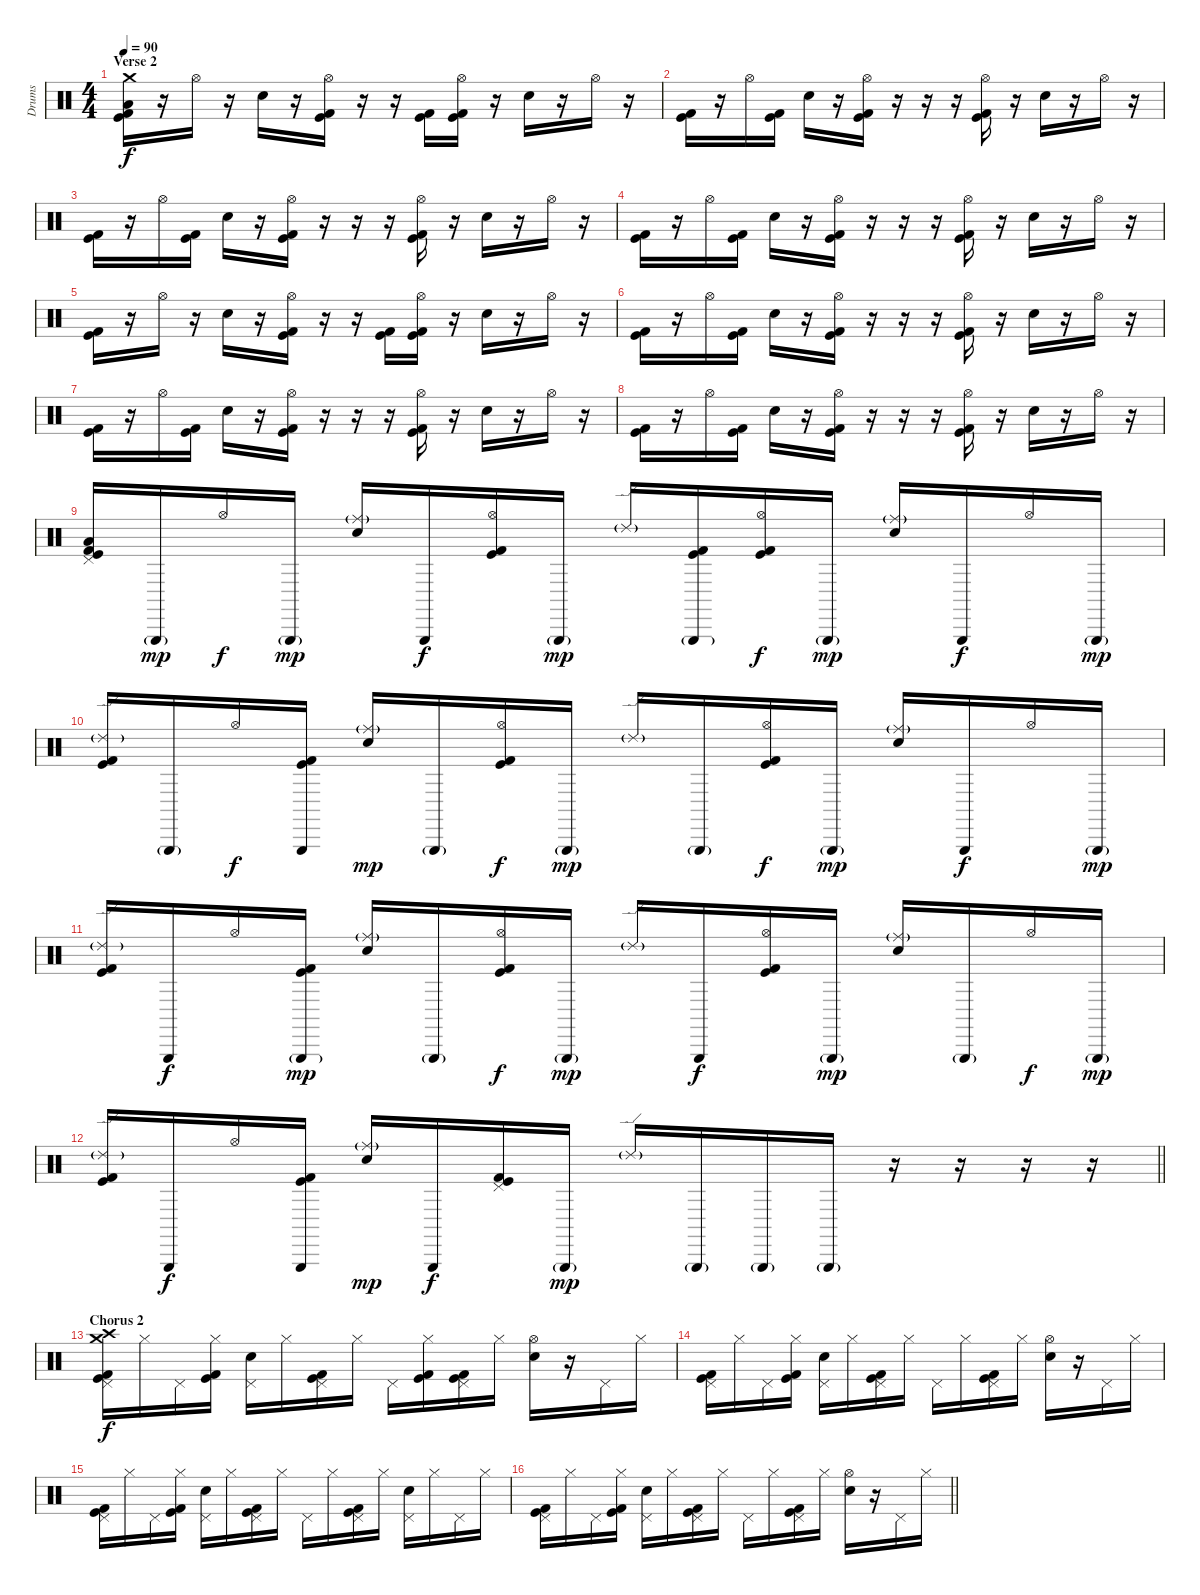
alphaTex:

\track ("Drums" "Drums") {instrument percussion}
\staff {score}
\articulation defaults
\ts (4 4)
\section ("" "Verse 2")
\tempo 90
\clef neutral
\ks c
("Crash medium (hit)" "Low Floor Tom (hit)" "Kick (hit)" "Kick (hit) 2").16{dy f volume 16} r.16 "Hi-Hat (open)".16 r.16 "Electric Snare (hit)".16 r.16 ("Hi-Hat (open)" "Kick (hit)" "Kick (hit) 2").16 r.16 r.16 ("Kick (hit)" "Kick (hit) 2").16 ("Hi-Hat (open)" "Kick (hit)" "Kick (hit) 2").16 r.16 "Electric Snare (hit)".16 r.16 "Hi-Hat (open)".16 r.16 |
("Kick (hit)" "Kick (hit) 2").16 r.16 "Hi-Hat (open)".16 ("Kick (hit)" "Kick (hit) 2").16 "Electric Snare (hit)".16 r.16 ("Hi-Hat (open)" "Kick (hit)" "Kick (hit) 2").16 r.16 r.16 r.16 ("Hi-Hat (open)" "Kick (hit)" "Kick (hit) 2").16 r.16 "Electric Snare (hit)".16 r.16 "Hi-Hat (open)".16 r.16 |
("Kick (hit)" "Kick (hit) 2").16 r.16 "Hi-Hat (open)".16 ("Kick (hit)" "Kick (hit) 2").16 "Electric Snare (hit)".16 r.16 ("Hi-Hat (open)" "Kick (hit)" "Kick (hit) 2").16 r.16 r.16 r.16 ("Hi-Hat (open)" "Kick (hit)" "Kick (hit) 2").16 r.16 "Electric Snare (hit)".16 r.16 "Hi-Hat (open)".16 r.16 |
("Kick (hit)" "Kick (hit) 2").16 r.16 "Hi-Hat (open)".16 ("Kick (hit)" "Kick (hit) 2").16 "Electric Snare (hit)".16 r.16 ("Hi-Hat (open)" "Kick (hit)" "Kick (hit) 2").16 r.16 r.16 r.16 ("Hi-Hat (open)" "Kick (hit)" "Kick (hit) 2").16 r.16 "Electric Snare (hit)".16 r.16 "Hi-Hat (open)".16 r.16 |
("Kick (hit)" "Kick (hit) 2").16 r.16 "Hi-Hat (open)".16 r.16 "Electric Snare (hit)".16 r.16 ("Hi-Hat (open)" "Kick (hit)" "Kick (hit) 2").16 r.16 r.16 ("Kick (hit)" "Kick (hit) 2").16 ("Hi-Hat (open)" "Kick (hit)" "Kick (hit) 2").16 r.16 "Electric Snare (hit)".16 r.16 "Hi-Hat (open)".16 r.16 |
("Kick (hit)" "Kick (hit) 2").16 r.16 "Hi-Hat (open)".16 ("Kick (hit)" "Kick (hit) 2").16 "Electric Snare (hit)".16 r.16 ("Hi-Hat (open)" "Kick (hit)" "Kick (hit) 2").16 r.16 r.16 r.16 ("Hi-Hat (open)" "Kick (hit)" "Kick (hit) 2").16 r.16 "Electric Snare (hit)".16 r.16 "Hi-Hat (open)".16 r.16 |
("Kick (hit)" "Kick (hit) 2").16 r.16 "Hi-Hat (open)".16 ("Kick (hit)" "Kick (hit) 2").16 "Electric Snare (hit)".16 r.16 ("Hi-Hat (open)" "Kick (hit)" "Kick (hit) 2").16 r.16 r.16 r.16 ("Hi-Hat (open)" "Kick (hit)" "Kick (hit) 2").16 r.16 "Electric Snare (hit)".16 r.16 "Hi-Hat (open)".16 r.16 |
("Kick (hit)" "Kick (hit) 2").16 r.16 "Hi-Hat (open)".16 ("Kick (hit)" "Kick (hit) 2").16 "Electric Snare (hit)".16 r.16 ("Hi-Hat (open)" "Kick (hit)" "Kick (hit) 2").16 r.16 r.16 r.16 ("Hi-Hat (open)" "Kick (hit)" "Kick (hit) 2").16 r.16 "Electric Snare (hit)".16 r.16 "Hi-Hat (open)".16 r.16 |
("Pedal Hi-Hat (hit)" "Low Floor Tom (hit)" "Kick (hit)" "Kick (hit) 2").16 "Triangle (hit)"{g}.16{dy mp} "Hi-Hat (open)".16{dy f} "Triangle (hit)"{g}.16{dy mp} ("Ride (middle)"{g} "Electric Snare (hit)").16 "Triangle (hit)".16{dy f} ("Hi-Hat (open)" "Kick (hit)" "Kick (hit) 2").16 "Triangle (hit)"{g}.16{dy mp} "Ride (edge) 2"{g}.16 ("Triangle (hit)"{g} "Kick (hit)" "Kick (hit) 2").16 ("Hi-Hat (open)" "Kick (hit)" "Kick (hit) 2").16{dy f} "Triangle (hit)"{g}.16{dy mp} ("Ride (middle)"{g} "Electric Snare (hit)").16 "Triangle (hit)".16{dy f} "Hi-Hat (open)".16 "Triangle (hit)"{g}.16{dy mp} |
("Ride (edge) 2"{g} "Kick (hit)" "Kick (hit) 2").16 "Triangle (hit)"{g}.16 "Hi-Hat (open)".16{dy f} ("Triangle (hit)" "Kick (hit)" "Kick (hit) 2").16 ("Ride (middle)"{g} "Electric Snare (hit)").16{dy mp} "Triangle (hit)"{g}.16 ("Hi-Hat (open)" "Kick (hit)" "Kick (hit) 2").16{dy f} "Triangle (hit)"{g}.16{dy mp} "Ride (edge) 2"{g}.16 "Triangle (hit)"{g}.16 ("Hi-Hat (open)" "Kick (hit)" "Kick (hit) 2").16{dy f} "Triangle (hit)"{g}.16{dy mp} ("Ride (middle)"{g} "Electric Snare (hit)").16 "Triangle (hit)".16{dy f} "Hi-Hat (open)".16 "Triangle (hit)"{g}.16{dy mp} |
("Ride (edge) 2"{g} "Kick (hit)" "Kick (hit) 2").16 "Triangle (hit)".16{dy f} "Hi-Hat (open)".16 ("Triangle (hit)"{g} "Kick (hit)" "Kick (hit) 2").16{dy mp} ("Ride (middle)"{g} "Electric Snare (hit)").16 "Triangle (hit)"{g}.16 ("Hi-Hat (open)" "Kick (hit)" "Kick (hit) 2").16{dy f} "Triangle (hit)"{g}.16{dy mp} "Ride (edge) 2"{g}.16 "Triangle (hit)".16{dy f} ("Hi-Hat (open)" "Kick (hit)" "Kick (hit) 2").16 "Triangle (hit)"{g}.16{dy mp} ("Ride (middle)"{g} "Electric Snare (hit)").16 "Triangle (hit)"{g}.16 "Hi-Hat (open)".16{dy f} "Triangle (hit)"{g}.16{dy mp} |
\barLineRight lightlight
("Ride (edge) 2"{g} "Kick (hit)" "Kick (hit) 2").16 "Triangle (hit)".16{dy f} "Hi-Hat (open)".16 ("Triangle (hit)" "Kick (hit)" "Kick (hit) 2").16 ("Ride (middle)"{g} "Electric Snare (hit)").16{dy mp} "Triangle (hit)".16{dy f} ("Pedal Hi-Hat (hit)" "Kick (hit)" "Kick (hit) 2").16 "Triangle (hit)"{g}.16{dy mp} "Ride (edge) 2"{g}.16 "Triangle (hit)"{g}.16 "Triangle (hit)"{g}.16 "Triangle (hit)"{g}.16 r.16 r.16 r.16 r.16 |
\section ("" "Chorus 2")
("Crash high (hit)" "Pedal Hi-Hat (hit)" "Crash medium (hit)" "Kick (hit)" "Kick (hit) 2").16{dy f} "Hi-Hat (closed)".16 "Pedal Hi-Hat (hit)".16 ("Hi-Hat (closed)" "Kick (hit)" "Kick (hit) 2").16 ("Pedal Hi-Hat (hit)" "Electric Snare (hit)").16 "Hi-Hat (closed)".16 ("Pedal Hi-Hat (hit)" "Kick (hit)" "Kick (hit) 2").16 "Hi-Hat (closed)".16 "Pedal Hi-Hat (hit)".16 ("Hi-Hat (closed)" "Kick (hit)" "Kick (hit) 2").16 ("Pedal Hi-Hat (hit)" "Kick (hit)" "Kick (hit) 2").16 "Hi-Hat (closed)".16 ("Hi-Hat (open)" "Electric Snare (hit)").16 r.16 "Pedal Hi-Hat (hit)".16 "Hi-Hat (closed)".16 |
("Pedal Hi-Hat (hit)" "Kick (hit)" "Kick (hit) 2").16 "Hi-Hat (closed)".16 "Pedal Hi-Hat (hit)".16 ("Hi-Hat (closed)" "Kick (hit)" "Kick (hit) 2").16 ("Pedal Hi-Hat (hit)" "Electric Snare (hit)").16 "Hi-Hat (closed)".16 ("Pedal Hi-Hat (hit)" "Kick (hit)" "Kick (hit) 2").16 "Hi-Hat (closed)".16 "Pedal Hi-Hat (hit)".16 "Hi-Hat (closed)".16 ("Pedal Hi-Hat (hit)" "Kick (hit)" "Kick (hit) 2").16 "Hi-Hat (closed)".16 ("Hi-Hat (open)" "Electric Snare (hit)").16 r.16 "Pedal Hi-Hat (hit)".16 "Hi-Hat (closed)".16 |
("Pedal Hi-Hat (hit)" "Kick (hit)" "Kick (hit) 2").16 "Hi-Hat (closed)".16 "Pedal Hi-Hat (hit)".16 ("Hi-Hat (closed)" "Kick (hit)" "Kick (hit) 2").16 ("Pedal Hi-Hat (hit)" "Electric Snare (hit)").16 "Hi-Hat (closed)".16 ("Pedal Hi-Hat (hit)" "Kick (hit)" "Kick (hit) 2").16 "Hi-Hat (closed)".16 "Pedal Hi-Hat (hit)".16 "Hi-Hat (closed)".16 ("Pedal Hi-Hat (hit)" "Kick (hit)" "Kick (hit) 2").16 "Hi-Hat (closed)".16 ("Pedal Hi-Hat (hit)" "Electric Snare (hit)").16 "Hi-Hat (closed)".16 "Pedal Hi-Hat (hit)".16 "Hi-Hat (closed)".16 |
\barLineRight lightlight
("Pedal Hi-Hat (hit)" "Kick (hit)" "Kick (hit) 2").16 "Hi-Hat (closed)".16 "Pedal Hi-Hat (hit)".16 ("Hi-Hat (closed)" "Kick (hit)" "Kick (hit) 2").16 ("Pedal Hi-Hat (hit)" "Electric Snare (hit)").16 "Hi-Hat (closed)".16 ("Pedal Hi-Hat (hit)" "Kick (hit)" "Kick (hit) 2").16 "Hi-Hat (closed)".16 "Pedal Hi-Hat (hit)".16 "Hi-Hat (closed)".16 ("Pedal Hi-Hat (hit)" "Kick (hit)" "Kick (hit) 2").16 "Hi-Hat (closed)".16 ("Hi-Hat (open)" "Electric Snare (hit)").16 r.16 "Pedal Hi-Hat (hit)".16 "Hi-Hat (closed)".16
